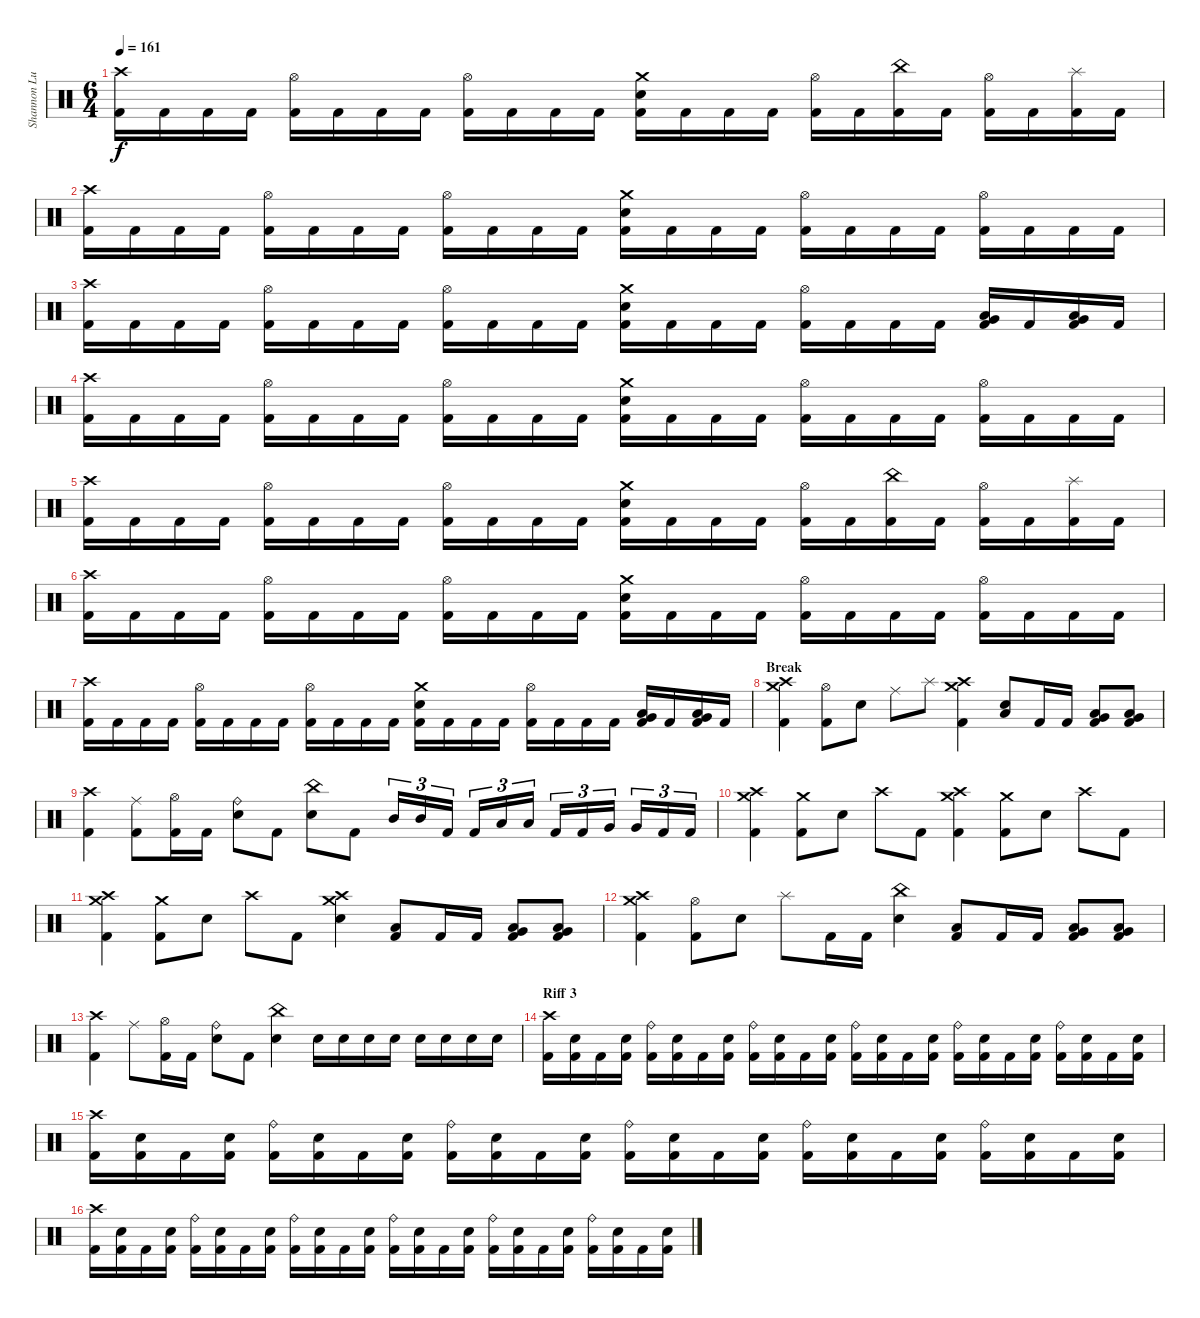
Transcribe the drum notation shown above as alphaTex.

\track ("Shannon Lucas (Drums)" "Shannon Lu") {instrument percussion}
\staff {score}
\articulation defaults
\ts (6 4)
\tempo 161
\clef neutral
\ks c
("Crash high (hit)" "Kick (hit) 2").16{dy f} "Kick (hit) 2".16 "Kick (hit) 2".16 "Kick (hit) 2".16 ("Hi-Hat (open)" "Kick (hit) 2").16 "Kick (hit) 2".16 "Kick (hit) 2".16 "Kick (hit) 2".16 ("Hi-Hat (open)" "Kick (hit) 2").16 "Kick (hit) 2".16 "Kick (hit) 2".16 "Kick (hit) 2".16 ("Snare (hit) 2" "Crash medium (hit)" "Kick (hit) 2").16 "Kick (hit) 2".16 "Kick (hit) 2".16 "Kick (hit) 2".16 ("Hi-Hat (open)" "Kick (hit) 2").16 "Kick (hit) 2".16 ("China (hit)" "Kick (hit) 2").16 "Kick (hit) 2".16 ("Hi-Hat (open)" "Kick (hit) 2").16 "Kick (hit) 2".16 ("Splash (hit)" "Kick (hit) 2").16 "Kick (hit) 2".16 |
("Crash high (hit)" "Kick (hit) 2").16 "Kick (hit) 2".16 "Kick (hit) 2".16 "Kick (hit) 2".16 ("Hi-Hat (open)" "Kick (hit) 2").16 "Kick (hit) 2".16 "Kick (hit) 2".16 "Kick (hit) 2".16 ("Hi-Hat (open)" "Kick (hit) 2").16 "Kick (hit) 2".16 "Kick (hit) 2".16 "Kick (hit) 2".16 ("Snare (hit) 2" "Crash medium (hit)" "Kick (hit) 2").16 "Kick (hit) 2".16 "Kick (hit) 2".16 "Kick (hit) 2".16 ("Hi-Hat (open)" "Kick (hit) 2").16 "Kick (hit) 2".16 "Kick (hit) 2".16 "Kick (hit) 2".16 ("Hi-Hat (open)" "Kick (hit) 2").16 "Kick (hit) 2".16 "Kick (hit) 2".16 "Kick (hit) 2".16 |
("Crash high (hit)" "Kick (hit) 2").16 "Kick (hit) 2".16 "Kick (hit) 2".16 "Kick (hit) 2".16 ("Hi-Hat (open)" "Kick (hit) 2").16 "Kick (hit) 2".16 "Kick (hit) 2".16 "Kick (hit) 2".16 ("Hi-Hat (open)" "Kick (hit) 2").16 "Kick (hit) 2".16 "Kick (hit) 2".16 "Kick (hit) 2".16 ("Snare (hit) 2" "Crash medium (hit)" "Kick (hit) 2").16 "Kick (hit) 2".16 "Kick (hit) 2".16 "Kick (hit) 2".16 ("Hi-Hat (open)" "Kick (hit) 2").16 "Kick (hit) 2".16 "Kick (hit) 2".16 "Kick (hit) 2".16 ("Very Low Tom (hit)" "Low Tom (hit)" "Kick (hit) 2").16 "Kick (hit) 2".16 ("Low Floor Tom (hit)" "Very Low Tom (hit)" "Kick (hit) 2").16 "Kick (hit) 2".16 |
("Crash high (hit)" "Kick (hit) 2").16 "Kick (hit) 2".16 "Kick (hit) 2".16 "Kick (hit) 2".16 ("Hi-Hat (open)" "Kick (hit) 2").16 "Kick (hit) 2".16 "Kick (hit) 2".16 "Kick (hit) 2".16 ("Hi-Hat (open)" "Kick (hit) 2").16 "Kick (hit) 2".16 "Kick (hit) 2".16 "Kick (hit) 2".16 ("Snare (hit) 2" "Crash medium (hit)" "Kick (hit) 2").16 "Kick (hit) 2".16 "Kick (hit) 2".16 "Kick (hit) 2".16 ("Hi-Hat (open)" "Kick (hit) 2").16 "Kick (hit) 2".16 "Kick (hit) 2".16 "Kick (hit) 2".16 ("Hi-Hat (open)" "Kick (hit) 2").16 "Kick (hit) 2".16 "Kick (hit) 2".16 "Kick (hit) 2".16 |
("Crash high (hit)" "Kick (hit) 2").16 "Kick (hit) 2".16 "Kick (hit) 2".16 "Kick (hit) 2".16 ("Hi-Hat (open)" "Kick (hit) 2").16 "Kick (hit) 2".16 "Kick (hit) 2".16 "Kick (hit) 2".16 ("Hi-Hat (open)" "Kick (hit) 2").16 "Kick (hit) 2".16 "Kick (hit) 2".16 "Kick (hit) 2".16 ("Snare (hit) 2" "Crash medium (hit)" "Kick (hit) 2").16 "Kick (hit) 2".16 "Kick (hit) 2".16 "Kick (hit) 2".16 ("Hi-Hat (open)" "Kick (hit) 2").16 "Kick (hit) 2".16 ("China (hit)" "Kick (hit) 2").16 "Kick (hit) 2".16 ("Hi-Hat (open)" "Kick (hit) 2").16 "Kick (hit) 2".16 ("Splash (hit)" "Kick (hit) 2").16 "Kick (hit) 2".16 |
("Crash high (hit)" "Kick (hit) 2").16 "Kick (hit) 2".16 "Kick (hit) 2".16 "Kick (hit) 2".16 ("Hi-Hat (open)" "Kick (hit) 2").16 "Kick (hit) 2".16 "Kick (hit) 2".16 "Kick (hit) 2".16 ("Hi-Hat (open)" "Kick (hit) 2").16 "Kick (hit) 2".16 "Kick (hit) 2".16 "Kick (hit) 2".16 ("Snare (hit) 2" "Crash medium (hit)" "Kick (hit) 2").16 "Kick (hit) 2".16 "Kick (hit) 2".16 "Kick (hit) 2".16 ("Hi-Hat (open)" "Kick (hit) 2").16 "Kick (hit) 2".16 "Kick (hit) 2".16 "Kick (hit) 2".16 ("Hi-Hat (open)" "Kick (hit) 2").16 "Kick (hit) 2".16 "Kick (hit) 2".16 "Kick (hit) 2".16 |
("Crash high (hit)" "Kick (hit) 2").16 "Kick (hit) 2".16 "Kick (hit) 2".16 "Kick (hit) 2".16 ("Hi-Hat (open)" "Kick (hit) 2").16 "Kick (hit) 2".16 "Kick (hit) 2".16 "Kick (hit) 2".16 ("Hi-Hat (open)" "Kick (hit) 2").16 "Kick (hit) 2".16 "Kick (hit) 2".16 "Kick (hit) 2".16 ("Snare (hit) 2" "Crash medium (hit)" "Kick (hit) 2").16 "Kick (hit) 2".16 "Kick (hit) 2".16 "Kick (hit) 2".16 ("Hi-Hat (open)" "Kick (hit) 2").16 "Kick (hit) 2".16 "Kick (hit) 2".16 "Kick (hit) 2".16 ("Very Low Tom (hit)" "Low Tom (hit)" "Kick (hit) 2").16 "Kick (hit) 2".16 ("Low Floor Tom (hit)" "Very Low Tom (hit)" "Kick (hit) 2").16 "Kick (hit) 2".16 |
\section ("" "Break")
("Crash high (hit)" "Crash medium (hit)" "Kick (hit) 2").4 ("Hi-Hat (open)" "Kick (hit) 2").8 "Snare (hit) 2".8 "Ride (middle)".8 "Splash (hit)".8 ("Crash high (hit)" "Crash medium (hit)" "Kick (hit) 2").4 ("Low Floor Tom (hit)" "Snare (hit) 2").8 "Kick (hit) 2".16 "Kick (hit) 2".16 ("Low Tom (hit)" "Very Low Tom (hit)" "Kick (hit) 2").8 ("Very Low Tom (hit)" "Low Floor Tom (hit)" "Kick (hit) 2").8 |
("Crash high (hit)" "Kick (hit) 2").4 ("Ride (middle)" "Kick (hit) 2").8 ("Hi-Hat (open)" "Kick (hit) 2").16 "Kick (hit) 2".16 ("Ride (bell)" "Snare (hit) 2").8 "Kick (hit) 2".8 ("China (hit)" "Snare (hit) 2").8 "Kick (hit) 2".8 "Mid Tom (hit)".16{tu (3 2)} "Mid Tom (hit)".16{tu (3 2)} "Kick (hit) 2".16{tu (3 2)} "Kick (hit) 2".16{tu (3 2)} "Low Tom (hit)".16{tu (3 2)} "Low Tom (hit)".16{tu (3 2)} "Kick (hit) 2".16{tu (3 2)} "Kick (hit) 2".16{tu (3 2)} "Very Low Tom (hit)".16{tu (3 2)} "Very Low Tom (hit)".16{tu (3 2)} "Kick (hit) 2".16{tu (3 2)} "Kick (hit) 2".16{tu (3 2)} |
("Crash medium (hit)" "Crash high (hit)" "Kick (hit) 2").4 ("Crash medium (hit)" "Kick (hit) 2").8 "Snare (hit) 2".8 "Crash high (hit)".8 "Kick (hit) 2".8 ("Crash high (hit)" "Crash medium (hit)" "Kick (hit) 2").4 ("Crash medium (hit)" "Kick (hit) 2").8 "Snare (hit) 2".8 "Crash high (hit)".8 "Kick (hit) 2".8 |
("Crash medium (hit)" "Crash high (hit)" "Kick (hit) 2").4 ("Crash medium (hit)" "Kick (hit) 2").8 "Snare (hit) 2".8 "Crash high (hit)".8 "Kick (hit) 2".8 ("Crash high (hit)" "Crash medium (hit)" "Snare (hit) 2").4 ("Low Tom (hit)" "Kick (hit) 2").8 "Kick (hit) 2".16 "Kick (hit) 2".16 ("Very Low Tom (hit)" "Low Tom (hit)" "Kick (hit) 2").8 ("Low Floor Tom (hit)" "Very Low Tom (hit)" "Kick (hit) 2").8 |
("Crash medium (hit)" "Crash high (hit)" "Kick (hit) 2").4 ("Hi-Hat (open)" "Kick (hit) 2").8 "Snare (hit) 2".8 "Splash (hit)".8 "Kick (hit) 2".16 "Kick (hit) 2".16 ("China (hit)" "Snare (hit) 2").4 ("Low Tom (hit)" "Kick (hit) 2").8 "Kick (hit) 2".16 "Kick (hit) 2".16 ("Very Low Tom (hit)" "Low Tom (hit)" "Kick (hit) 2").8 ("Low Floor Tom (hit)" "Very Low Tom (hit)" "Kick (hit) 2").8 |
("Crash high (hit)" "Kick (hit) 2").4 "Ride (middle)".8 ("Hi-Hat (open)" "Kick (hit) 2").16 "Kick (hit) 2".16 ("Ride (bell)" "Snare (hit) 2").8 "Kick (hit) 2".8 ("China (hit)" "Snare (hit) 2").4 "Snare (hit) 2".16 "Snare (hit) 2".16 "Snare (hit) 2".16 "Snare (hit) 2".16 "Snare (hit) 2".16 "Snare (hit) 2".16 "Snare (hit) 2".16 "Snare (hit) 2".16 |
\section ("" "Riff 3")
("Crash high (hit)" "Kick (hit) 2").16 ("Snare (hit) 2" "Kick (hit) 2").16 "Kick (hit) 2".16 ("Snare (hit) 2" "Kick (hit) 2").16 ("Ride (bell)" "Kick (hit) 2").16 ("Snare (hit) 2" "Kick (hit) 2").16 "Kick (hit) 2".16 ("Snare (hit) 2" "Kick (hit) 2").16 ("Ride (bell)" "Kick (hit) 2").16 ("Snare (hit) 2" "Kick (hit) 2").16 "Kick (hit) 2".16 ("Snare (hit) 2" "Kick (hit) 2").16 ("Ride (bell)" "Kick (hit) 2").16 ("Snare (hit) 2" "Kick (hit) 2").16 "Kick (hit) 2".16 ("Snare (hit) 2" "Kick (hit) 2").16 ("Ride (bell)" "Kick (hit) 2").16 ("Snare (hit) 2" "Kick (hit) 2").16 "Kick (hit) 2".16 ("Snare (hit) 2" "Kick (hit) 2").16 ("Ride (bell)" "Kick (hit) 2").16 ("Snare (hit) 2" "Kick (hit) 2").16 "Kick (hit) 2".16 ("Snare (hit) 2" "Kick (hit) 2").16 |
("Crash high (hit)" "Kick (hit) 2").16 ("Snare (hit) 2" "Kick (hit) 2").16 "Kick (hit) 2".16 ("Snare (hit) 2" "Kick (hit) 2").16 ("Ride (bell)" "Kick (hit) 2").16 ("Snare (hit) 2" "Kick (hit) 2").16 "Kick (hit) 2".16 ("Snare (hit) 2" "Kick (hit) 2").16 ("Ride (bell)" "Kick (hit) 2").16 ("Snare (hit) 2" "Kick (hit) 2").16 "Kick (hit) 2".16 ("Snare (hit) 2" "Kick (hit) 2").16 ("Ride (bell)" "Kick (hit) 2").16 ("Snare (hit) 2" "Kick (hit) 2").16 "Kick (hit) 2".16 ("Snare (hit) 2" "Kick (hit) 2").16 ("Ride (bell)" "Kick (hit) 2").16 ("Snare (hit) 2" "Kick (hit) 2").16 "Kick (hit) 2".16 ("Snare (hit) 2" "Kick (hit) 2").16 ("Ride (bell)" "Kick (hit) 2").16 ("Snare (hit) 2" "Kick (hit) 2").16 "Kick (hit) 2".16 ("Snare (hit) 2" "Kick (hit) 2").16 |
("Crash high (hit)" "Kick (hit) 2").16 ("Snare (hit) 2" "Kick (hit) 2").16 "Kick (hit) 2".16 ("Snare (hit) 2" "Kick (hit) 2").16 ("Ride (bell)" "Kick (hit) 2").16 ("Snare (hit) 2" "Kick (hit) 2").16 "Kick (hit) 2".16 ("Snare (hit) 2" "Kick (hit) 2").16 ("Ride (bell)" "Kick (hit) 2").16 ("Snare (hit) 2" "Kick (hit) 2").16 "Kick (hit) 2".16 ("Snare (hit) 2" "Kick (hit) 2").16 ("Ride (bell)" "Kick (hit) 2").16 ("Snare (hit) 2" "Kick (hit) 2").16 "Kick (hit) 2".16 ("Snare (hit) 2" "Kick (hit) 2").16 ("Ride (bell)" "Kick (hit) 2").16 ("Snare (hit) 2" "Kick (hit) 2").16 "Kick (hit) 2".16 ("Snare (hit) 2" "Kick (hit) 2").16 ("Ride (bell)" "Kick (hit) 2").16 ("Snare (hit) 2" "Kick (hit) 2").16 "Kick (hit) 2".16 ("Snare (hit) 2" "Kick (hit) 2").16
